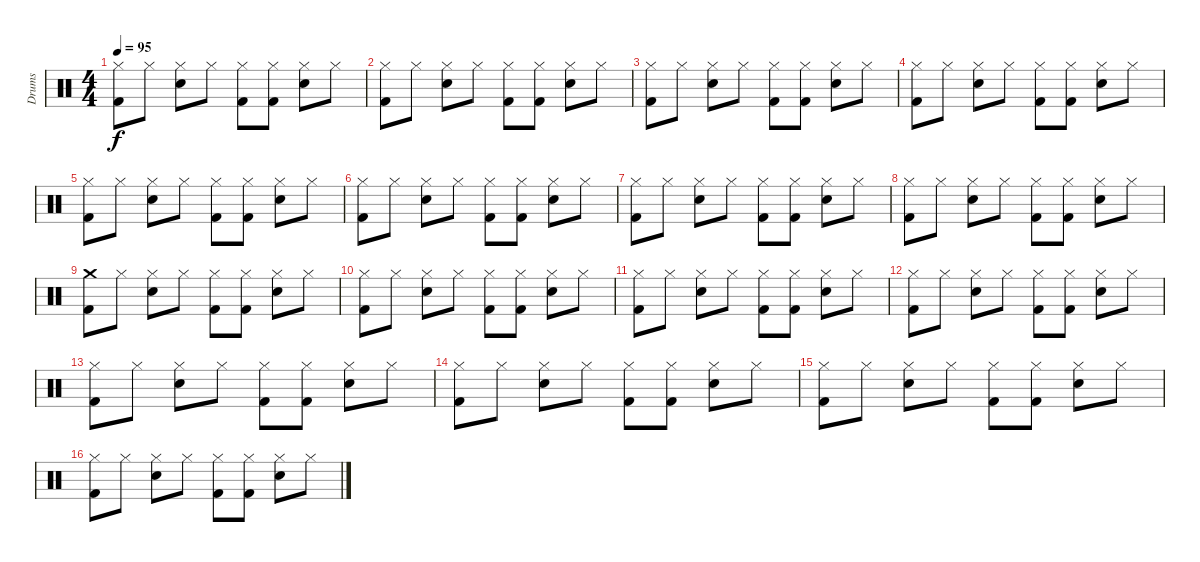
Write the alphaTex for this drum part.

\track ("Drums" "Drums") {instrument percussion}
\staff {score}
\articulation defaults
\ts (4 4)
\tempo 95
\clef neutral
\ks c
("Hi-Hat (closed)" "Kick (hit) 2").8{dy f} "Hi-Hat (closed)".8 ("Hi-Hat (closed)" "Snare (hit) 2").8 "Hi-Hat (closed)".8 ("Hi-Hat (closed)" "Kick (hit) 2").8 ("Hi-Hat (closed)" "Kick (hit) 2").8 ("Hi-Hat (closed)" "Snare (hit) 2").8 "Hi-Hat (closed)".8 |
("Hi-Hat (closed)" "Kick (hit) 2").8 "Hi-Hat (closed)".8 ("Hi-Hat (closed)" "Snare (hit) 2").8 "Hi-Hat (closed)".8 ("Hi-Hat (closed)" "Kick (hit) 2").8 ("Hi-Hat (closed)" "Kick (hit) 2").8 ("Hi-Hat (closed)" "Snare (hit) 2").8 "Hi-Hat (closed)".8 |
("Hi-Hat (closed)" "Kick (hit) 2").8 "Hi-Hat (closed)".8 ("Hi-Hat (closed)" "Snare (hit) 2").8 "Hi-Hat (closed)".8 ("Hi-Hat (closed)" "Kick (hit) 2").8 ("Hi-Hat (closed)" "Kick (hit) 2").8 ("Hi-Hat (closed)" "Snare (hit) 2").8 "Hi-Hat (closed)".8 |
("Hi-Hat (closed)" "Kick (hit) 2").8 "Hi-Hat (closed)".8 ("Hi-Hat (closed)" "Snare (hit) 2").8 "Hi-Hat (closed)".8 ("Hi-Hat (closed)" "Kick (hit) 2").8 ("Hi-Hat (closed)" "Kick (hit) 2").8 ("Hi-Hat (closed)" "Snare (hit) 2").8 "Hi-Hat (closed)".8 |
("Hi-Hat (closed)" "Kick (hit) 2").8 "Hi-Hat (closed)".8 ("Hi-Hat (closed)" "Snare (hit) 2").8 "Hi-Hat (closed)".8 ("Hi-Hat (closed)" "Kick (hit) 2").8 ("Hi-Hat (closed)" "Kick (hit) 2").8 ("Hi-Hat (closed)" "Snare (hit) 2").8 "Hi-Hat (closed)".8 |
("Hi-Hat (closed)" "Kick (hit) 2").8 "Hi-Hat (closed)".8 ("Hi-Hat (closed)" "Snare (hit) 2").8 "Hi-Hat (closed)".8 ("Hi-Hat (closed)" "Kick (hit) 2").8 ("Hi-Hat (closed)" "Kick (hit) 2").8 ("Hi-Hat (closed)" "Snare (hit) 2").8 "Hi-Hat (closed)".8 |
("Hi-Hat (closed)" "Kick (hit) 2").8 "Hi-Hat (closed)".8 ("Hi-Hat (closed)" "Snare (hit) 2").8 "Hi-Hat (closed)".8 ("Hi-Hat (closed)" "Kick (hit) 2").8 ("Hi-Hat (closed)" "Kick (hit) 2").8 ("Hi-Hat (closed)" "Snare (hit) 2").8 "Hi-Hat (closed)".8 |
("Hi-Hat (closed)" "Kick (hit) 2").8 "Hi-Hat (closed)".8 ("Hi-Hat (closed)" "Snare (hit) 2").8 "Hi-Hat (closed)".8 ("Hi-Hat (closed)" "Kick (hit) 2").8 ("Hi-Hat (closed)" "Kick (hit) 2").8 ("Hi-Hat (closed)" "Snare (hit) 2").8 "Hi-Hat (closed)".8 |
("Crash medium (hit)" "Kick (hit) 2").8 "Hi-Hat (closed)".8 ("Hi-Hat (closed)" "Snare (hit) 2").8 "Hi-Hat (closed)".8 ("Hi-Hat (closed)" "Kick (hit) 2").8 ("Hi-Hat (closed)" "Kick (hit) 2").8 ("Hi-Hat (closed)" "Snare (hit) 2").8 "Hi-Hat (closed)".8 |
("Hi-Hat (closed)" "Kick (hit) 2").8 "Hi-Hat (closed)".8 ("Hi-Hat (closed)" "Snare (hit) 2").8 "Hi-Hat (closed)".8 ("Hi-Hat (closed)" "Kick (hit) 2").8 ("Hi-Hat (closed)" "Kick (hit) 2").8 ("Hi-Hat (closed)" "Snare (hit) 2").8 "Hi-Hat (closed)".8 |
("Hi-Hat (closed)" "Kick (hit) 2").8 "Hi-Hat (closed)".8 ("Hi-Hat (closed)" "Snare (hit) 2").8 "Hi-Hat (closed)".8 ("Hi-Hat (closed)" "Kick (hit) 2").8 ("Hi-Hat (closed)" "Kick (hit) 2").8 ("Hi-Hat (closed)" "Snare (hit) 2").8 "Hi-Hat (closed)".8 |
("Hi-Hat (closed)" "Kick (hit) 2").8 "Hi-Hat (closed)".8 ("Hi-Hat (closed)" "Snare (hit) 2").8 "Hi-Hat (closed)".8 ("Hi-Hat (closed)" "Kick (hit) 2").8 ("Hi-Hat (closed)" "Kick (hit) 2").8 ("Hi-Hat (closed)" "Snare (hit) 2").8 "Hi-Hat (closed)".8 |
("Hi-Hat (closed)" "Kick (hit) 2").8 "Hi-Hat (closed)".8 ("Hi-Hat (closed)" "Snare (hit) 2").8 "Hi-Hat (closed)".8 ("Hi-Hat (closed)" "Kick (hit) 2").8 ("Hi-Hat (closed)" "Kick (hit) 2").8 ("Hi-Hat (closed)" "Snare (hit) 2").8 "Hi-Hat (closed)".8 |
("Hi-Hat (closed)" "Kick (hit) 2").8 "Hi-Hat (closed)".8 ("Hi-Hat (closed)" "Snare (hit) 2").8 "Hi-Hat (closed)".8 ("Hi-Hat (closed)" "Kick (hit) 2").8 ("Hi-Hat (closed)" "Kick (hit) 2").8 ("Hi-Hat (closed)" "Snare (hit) 2").8 "Hi-Hat (closed)".8 |
("Hi-Hat (closed)" "Kick (hit) 2").8 "Hi-Hat (closed)".8 ("Hi-Hat (closed)" "Snare (hit) 2").8 "Hi-Hat (closed)".8 ("Hi-Hat (closed)" "Kick (hit) 2").8 ("Hi-Hat (closed)" "Kick (hit) 2").8 ("Hi-Hat (closed)" "Snare (hit) 2").8 "Hi-Hat (closed)".8 |
("Hi-Hat (closed)" "Kick (hit) 2").8 "Hi-Hat (closed)".8 ("Hi-Hat (closed)" "Snare (hit) 2").8 "Hi-Hat (closed)".8 ("Hi-Hat (closed)" "Kick (hit) 2").8 ("Hi-Hat (closed)" "Kick (hit) 2").8 ("Hi-Hat (closed)" "Snare (hit) 2").8 "Hi-Hat (closed)".8
